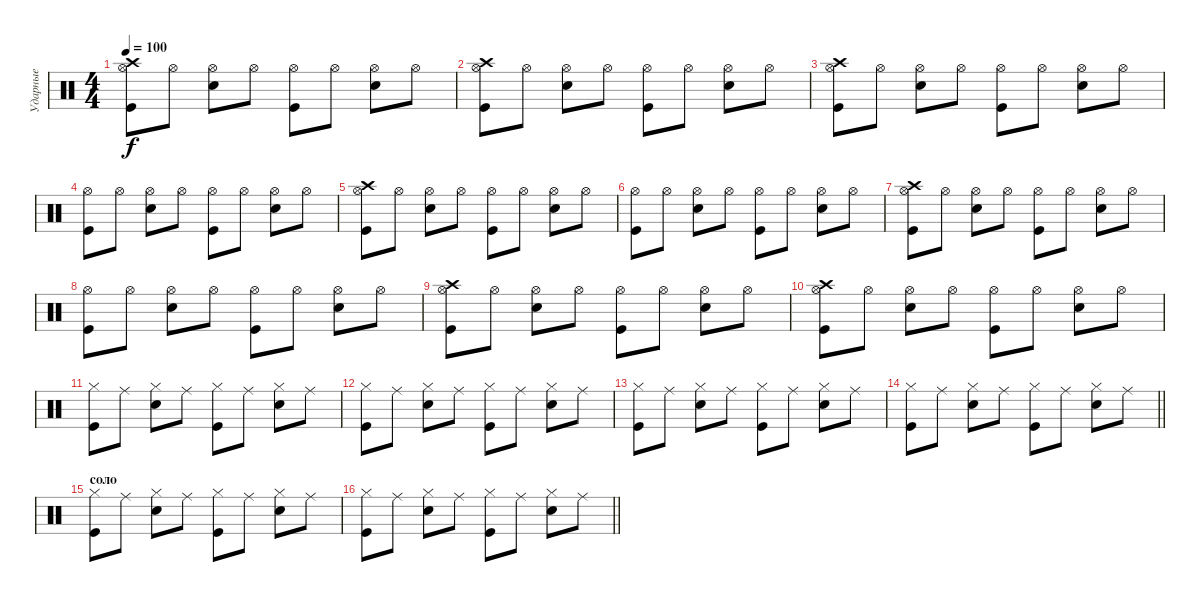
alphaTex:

\track ("Ударные" "Ударные") {instrument percussion}
\staff {score}
\articulation defaults
\ts (4 4)
\tempo 100
\clef neutral
\ks c
("Hi-Hat (open)" "Kick (hit)" "Crash high (hit)").8{dy f} "Hi-Hat (open)".8 ("Hi-Hat (open)" "Snare (hit) 2").8 "Hi-Hat (open)".8 ("Hi-Hat (open)" "Kick (hit)").8 "Hi-Hat (open)".8 ("Hi-Hat (open)" "Snare (hit) 2").8 "Hi-Hat (open)".8 |
("Hi-Hat (open)" "Kick (hit)" "Crash high (hit)").8 "Hi-Hat (open)".8 ("Hi-Hat (open)" "Snare (hit) 2").8 "Hi-Hat (open)".8 ("Hi-Hat (open)" "Kick (hit)").8 "Hi-Hat (open)".8 ("Hi-Hat (open)" "Snare (hit) 2").8 "Hi-Hat (open)".8 |
("Hi-Hat (open)" "Kick (hit)" "Crash high (hit)").8 "Hi-Hat (open)".8 ("Hi-Hat (open)" "Snare (hit) 2").8 "Hi-Hat (open)".8 ("Hi-Hat (open)" "Kick (hit)").8 "Hi-Hat (open)".8 ("Hi-Hat (open)" "Snare (hit) 2").8 "Hi-Hat (open)".8 |
("Hi-Hat (open)" "Kick (hit)").8 "Hi-Hat (open)".8 ("Hi-Hat (open)" "Snare (hit) 2").8 "Hi-Hat (open)".8 ("Hi-Hat (open)" "Kick (hit)").8 "Hi-Hat (open)".8 ("Hi-Hat (open)" "Snare (hit) 2").8 "Hi-Hat (open)".8 |
("Hi-Hat (open)" "Kick (hit)" "Crash high (hit)").8 "Hi-Hat (open)".8 ("Hi-Hat (open)" "Snare (hit) 2").8 "Hi-Hat (open)".8 ("Hi-Hat (open)" "Kick (hit)").8 "Hi-Hat (open)".8 ("Hi-Hat (open)" "Snare (hit) 2").8 "Hi-Hat (open)".8 |
("Hi-Hat (open)" "Kick (hit)").8 "Hi-Hat (open)".8 ("Hi-Hat (open)" "Snare (hit) 2").8 "Hi-Hat (open)".8 ("Hi-Hat (open)" "Kick (hit)").8 "Hi-Hat (open)".8 ("Hi-Hat (open)" "Snare (hit) 2").8 "Hi-Hat (open)".8 |
("Hi-Hat (open)" "Kick (hit)" "Crash high (hit)").8 "Hi-Hat (open)".8 ("Hi-Hat (open)" "Snare (hit) 2").8 "Hi-Hat (open)".8 ("Hi-Hat (open)" "Kick (hit)").8 "Hi-Hat (open)".8 ("Hi-Hat (open)" "Snare (hit) 2").8 "Hi-Hat (open)".8 |
("Hi-Hat (open)" "Kick (hit)").8 "Hi-Hat (open)".8 ("Hi-Hat (open)" "Snare (hit) 2").8 "Hi-Hat (open)".8 ("Hi-Hat (open)" "Kick (hit)").8 "Hi-Hat (open)".8 ("Hi-Hat (open)" "Snare (hit) 2").8 "Hi-Hat (open)".8 |
("Hi-Hat (open)" "Kick (hit)" "Crash high (hit)").8 "Hi-Hat (open)".8 ("Hi-Hat (open)" "Snare (hit) 2").8 "Hi-Hat (open)".8 ("Hi-Hat (open)" "Kick (hit)").8 "Hi-Hat (open)".8 ("Hi-Hat (open)" "Snare (hit) 2").8 "Hi-Hat (open)".8 |
("Hi-Hat (open)" "Kick (hit)" "Crash high (hit)").8 "Hi-Hat (open)".8 ("Hi-Hat (open)" "Snare (hit) 2").8 "Hi-Hat (open)".8 ("Hi-Hat (open)" "Kick (hit)").8 "Hi-Hat (open)".8 ("Hi-Hat (open)" "Snare (hit) 2").8 "Hi-Hat (open)".8 |
("Hi-Hat (closed)" "Kick (hit)").8 "Ride (middle)".8 ("Hi-Hat (closed)" "Snare (hit) 2").8 "Ride (middle)".8 ("Hi-Hat (closed)" "Kick (hit)").8 "Ride (middle)".8 ("Hi-Hat (closed)" "Snare (hit) 2").8 "Ride (middle)".8 |
("Hi-Hat (closed)" "Kick (hit)").8 "Ride (middle)".8 ("Hi-Hat (closed)" "Snare (hit) 2").8 "Ride (middle)".8 ("Hi-Hat (closed)" "Kick (hit)").8 "Ride (middle)".8 ("Hi-Hat (closed)" "Snare (hit) 2").8 "Ride (middle)".8 |
("Hi-Hat (closed)" "Kick (hit)").8 "Ride (middle)".8 ("Hi-Hat (closed)" "Snare (hit) 2").8 "Ride (middle)".8 ("Hi-Hat (closed)" "Kick (hit)").8 "Ride (middle)".8 ("Hi-Hat (closed)" "Snare (hit) 2").8 "Ride (middle)".8 |
\barLineRight lightlight
("Hi-Hat (closed)" "Kick (hit)").8 "Ride (middle)".8 ("Hi-Hat (closed)" "Snare (hit) 2").8 "Ride (middle)".8 ("Hi-Hat (closed)" "Kick (hit)").8 "Ride (middle)".8 ("Hi-Hat (closed)" "Snare (hit) 2").8 "Ride (middle)".8 |
\section ("" "соло")
("Hi-Hat (closed)" "Kick (hit)").8 "Ride (middle)".8 ("Hi-Hat (closed)" "Snare (hit) 2").8 "Ride (middle)".8 ("Hi-Hat (closed)" "Kick (hit)").8 "Ride (middle)".8 ("Hi-Hat (closed)" "Snare (hit) 2").8 "Ride (middle)".8 |
\barLineRight lightlight
("Hi-Hat (closed)" "Kick (hit)").8 "Ride (middle)".8 ("Hi-Hat (closed)" "Snare (hit) 2").8 "Ride (middle)".8 ("Hi-Hat (closed)" "Kick (hit)").8 "Ride (middle)".8 ("Hi-Hat (closed)" "Snare (hit) 2").8 "Ride (middle)".8
